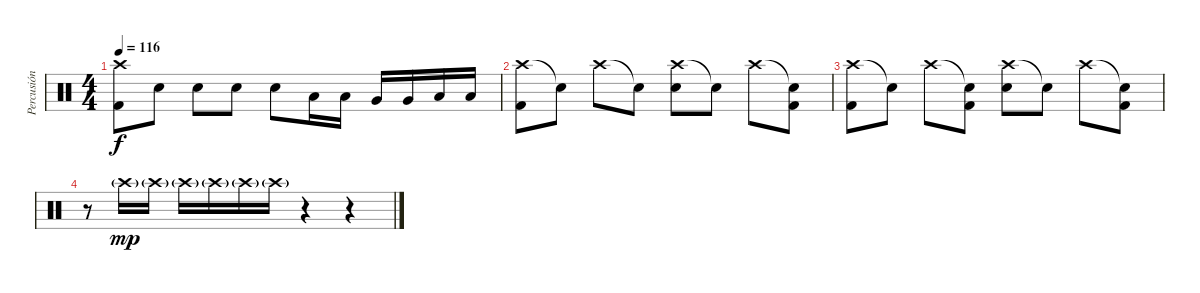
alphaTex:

\track ("Percusión" "Percusión") {instrument percussion}
\staff {score}
\articulation defaults
\ts (4 4)
\tempo 116
\clef neutral
\ks c
("Crash high (hit)" "Kick (hit) 2").8{dy f} "Electric Snare (hit)".8 "Electric Snare (hit)".8 "Electric Snare (hit)".8 "Electric Snare (hit)".8 "Low Tom (hit)".16 "Low Tom (hit)".16 "Very Low Tom (hit)".16 "Very Low Tom (hit)".16 "Low Floor Tom (hit)".16 "Low Floor Tom (hit)".16 |
("Crash high (hit)" "Kick (hit) 2").8 "Snare (hit)"{t}.8 "Crash high (hit)".8 "Snare (hit)"{t}.8 ("Crash high (hit)" "Electric Snare (hit)").8 "Snare (hit)"{t}.8 "Crash high (hit)".8 ("Snare (hit)"{t} "Kick (hit) 2").8 |
("Crash high (hit)" "Kick (hit) 2").8 "Snare (hit)"{t}.8 "Crash high (hit)".8 ("Snare (hit)"{t} "Kick (hit) 2").8 ("Crash high (hit)" "Electric Snare (hit)").8 "Snare (hit)"{t}.8 "Crash high (hit)".8 ("Snare (hit)"{t} "Kick (hit) 2").8 |
r.8 "Crash high (hit)"{g}.16{dy mp} "Crash high (hit)"{g}.16 "Crash high (hit)"{g}.16 "Crash high (hit)"{g}.16 "Crash high (hit)"{g}.16 "Crash high (hit)"{g}.16 r.4 r.4
